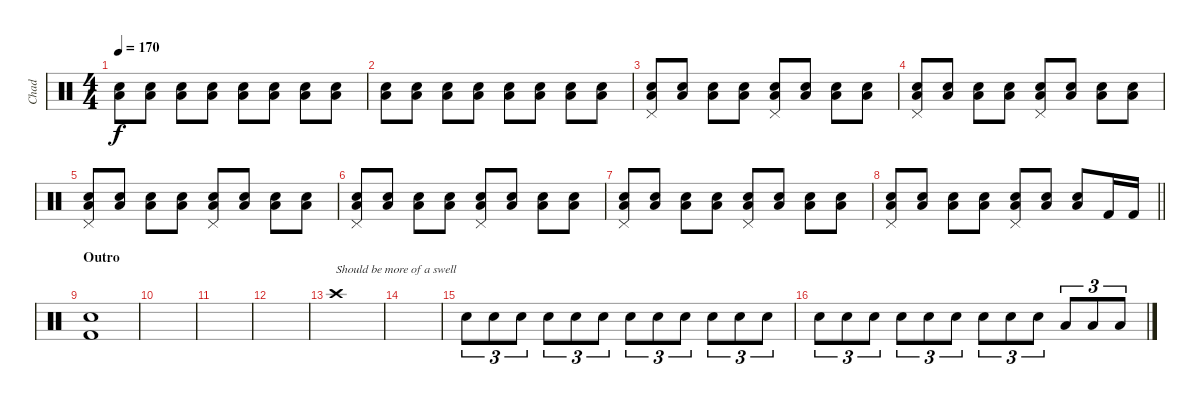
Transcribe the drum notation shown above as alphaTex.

\track ("Chad" "Chad") {instrument percussion}
\staff {score}
\articulation defaults
\ts (4 4)
\tempo 170
\clef neutral
\ks c
("Snare (hit) 2" "Low Tom (hit)").8{dy f volume 4} ("Snare (hit) 2" "Low Tom (hit)").8 ("Snare (hit) 2" "Low Tom (hit)").8 ("Snare (hit) 2" "Low Tom (hit)").8 ("Snare (hit) 2" "Low Tom (hit)").8 ("Snare (hit) 2" "Low Tom (hit)").8 ("Snare (hit) 2" "Low Tom (hit)").8 ("Snare (hit) 2" "Low Tom (hit)").8 |
("Snare (hit) 2" "Low Tom (hit)").8 ("Snare (hit) 2" "Low Tom (hit)").8 ("Snare (hit) 2" "Low Tom (hit)").8 ("Snare (hit) 2" "Low Tom (hit)").8 ("Snare (hit) 2" "Low Tom (hit)").8 ("Snare (hit) 2" "Low Tom (hit)").8 ("Snare (hit) 2" "Low Tom (hit)").8 ("Snare (hit) 2" "Low Tom (hit)").8 |
("Pedal Hi-Hat (hit)" "Snare (hit) 2" "Low Tom (hit)").8 ("Snare (hit) 2" "Low Tom (hit)").8 ("Snare (hit) 2" "Low Tom (hit)").8 ("Snare (hit) 2" "Low Tom (hit)").8 ("Pedal Hi-Hat (hit)" "Snare (hit) 2" "Low Tom (hit)").8 ("Snare (hit) 2" "Low Tom (hit)").8 ("Snare (hit) 2" "Low Tom (hit)").8 ("Snare (hit) 2" "Low Tom (hit)").8 |
("Pedal Hi-Hat (hit)" "Snare (hit) 2" "Low Tom (hit)").8 ("Snare (hit) 2" "Low Tom (hit)").8 ("Snare (hit) 2" "Low Tom (hit)").8 ("Snare (hit) 2" "Low Tom (hit)").8 ("Pedal Hi-Hat (hit)" "Snare (hit) 2" "Low Tom (hit)").8 ("Snare (hit) 2" "Low Tom (hit)").8 ("Snare (hit) 2" "Low Tom (hit)").8 ("Snare (hit) 2" "Low Tom (hit)").8 |
("Pedal Hi-Hat (hit)" "Snare (hit) 2" "Low Tom (hit)").8{volume 12} ("Snare (hit) 2" "Low Tom (hit)").8 ("Snare (hit) 2" "Low Tom (hit)").8 ("Snare (hit) 2" "Low Tom (hit)").8 ("Pedal Hi-Hat (hit)" "Snare (hit) 2" "Low Tom (hit)").8 ("Snare (hit) 2" "Low Tom (hit)").8 ("Snare (hit) 2" "Low Tom (hit)").8 ("Snare (hit) 2" "Low Tom (hit)").8 |
("Pedal Hi-Hat (hit)" "Snare (hit) 2" "Low Tom (hit)").8 ("Snare (hit) 2" "Low Tom (hit)").8 ("Snare (hit) 2" "Low Tom (hit)").8 ("Snare (hit) 2" "Low Tom (hit)").8 ("Pedal Hi-Hat (hit)" "Snare (hit) 2" "Low Tom (hit)").8 ("Snare (hit) 2" "Low Tom (hit)").8 ("Snare (hit) 2" "Low Tom (hit)").8 ("Snare (hit) 2" "Low Tom (hit)").8 |
("Pedal Hi-Hat (hit)" "Snare (hit) 2" "Low Tom (hit)").8 ("Snare (hit) 2" "Low Tom (hit)").8 ("Snare (hit) 2" "Low Tom (hit)").8 ("Snare (hit) 2" "Low Tom (hit)").8 ("Pedal Hi-Hat (hit)" "Snare (hit) 2" "Low Tom (hit)").8 ("Snare (hit) 2" "Low Tom (hit)").8 ("Snare (hit) 2" "Low Tom (hit)").8 ("Snare (hit) 2" "Low Tom (hit)").8 |
\barLineRight lightlight
("Pedal Hi-Hat (hit)" "Snare (hit) 2" "Low Tom (hit)").8 ("Snare (hit) 2" "Low Tom (hit)").8 ("Snare (hit) 2" "Low Tom (hit)").8 ("Snare (hit) 2" "Low Tom (hit)").8 ("Pedal Hi-Hat (hit)" "Snare (hit) 2" "Low Tom (hit)").8 ("Snare (hit) 2" "Low Tom (hit)").8 ("Snare (hit) 2" "Low Tom (hit)").8 "Kick (hit) 2".16 "Kick (hit) 2".16 |
\section ("" "Outro")
("Snare (hit) 2" "Kick (hit) 2").1 |
|
|
|
"Crash high (hit)".1{txt "Should be more of a swell"} |
|
"Snare (hit) 2".8{tu (3 2) volume 12} "Snare (hit) 2".8{tu (3 2)} "Snare (hit) 2".8{tu (3 2)} "Snare (hit) 2".8{tu (3 2)} "Snare (hit) 2".8{tu (3 2)} "Snare (hit) 2".8{tu (3 2)} "Snare (hit) 2".8{tu (3 2)} "Snare (hit) 2".8{tu (3 2)} "Snare (hit) 2".8{tu (3 2)} "Snare (hit) 2".8{tu (3 2)} "Snare (hit) 2".8{tu (3 2)} "Snare (hit) 2".8{tu (3 2)} |
"Snare (hit) 2".8{tu (3 2)} "Snare (hit) 2".8{tu (3 2)} "Snare (hit) 2".8{tu (3 2)} "Snare (hit) 2".8{tu (3 2)} "Snare (hit) 2".8{tu (3 2)} "Snare (hit) 2".8{tu (3 2)} "Snare (hit) 2".8{tu (3 2)} "Snare (hit) 2".8{tu (3 2)} "Snare (hit) 2".8{tu (3 2)} "Low Tom (hit)".8{tu (3 2)} "Low Tom (hit)".8{tu (3 2)} "Low Tom (hit)".8{tu (3 2)}
